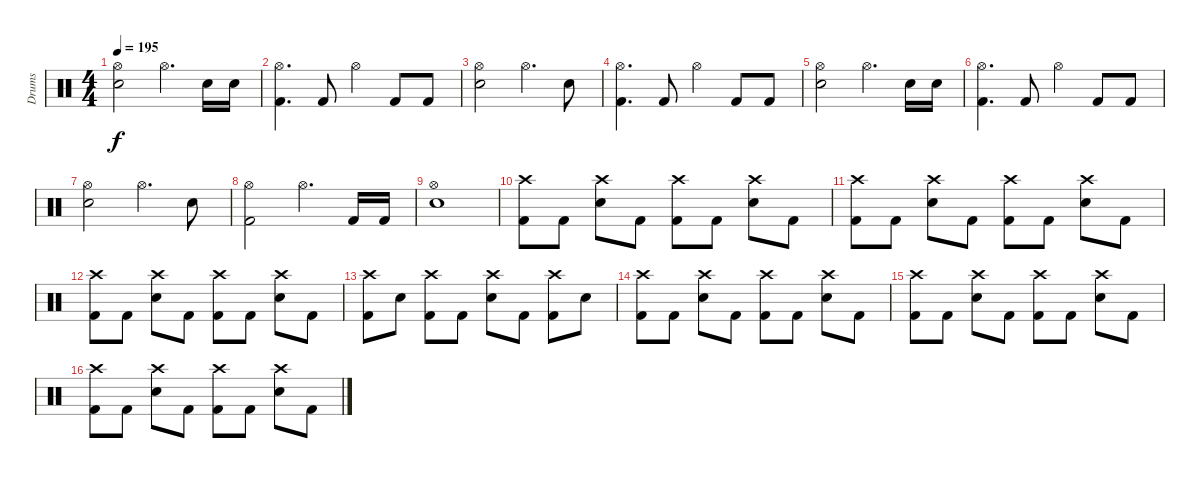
\track ("Drums" "Drums") {instrument percussion}
\staff {score}
\articulation defaults
\ts (4 4)
\tempo 195
\clef neutral
\ks c
("Hi-Hat (open)" "Electric Snare (hit)").2{dy f} "Hi-Hat (open)".4{d} "Electric Snare (hit)".16 "Electric Snare (hit)".16 |
("Hi-Hat (open)" "Kick (hit) 2").4{d} "Kick (hit) 2".8 "Hi-Hat (open)".4 "Kick (hit) 2".8 "Kick (hit) 2".8 |
("Hi-Hat (open)" "Electric Snare (hit)").2 "Hi-Hat (open)".4{d} "Electric Snare (hit)".8 |
("Hi-Hat (open)" "Kick (hit) 2").4{d} "Kick (hit) 2".8 "Hi-Hat (open)".4 "Kick (hit) 2".8 "Kick (hit) 2".8 |
("Hi-Hat (open)" "Electric Snare (hit)").2 "Hi-Hat (open)".4{d} "Electric Snare (hit)".16 "Electric Snare (hit)".16 |
("Hi-Hat (open)" "Kick (hit) 2").4{d} "Kick (hit) 2".8 "Hi-Hat (open)".4 "Kick (hit) 2".8 "Kick (hit) 2".8 |
("Hi-Hat (open)" "Electric Snare (hit)").2 "Hi-Hat (open)".4{d} "Electric Snare (hit)".8 |
("Hi-Hat (open)" "Kick (hit) 2").2 "Hi-Hat (open)".4{d} "Kick (hit) 2".16 "Kick (hit) 2".16 |
("Hi-Hat (open)" "Electric Snare (hit)").1 |
("Crash high (hit)" "Kick (hit) 2").8 "Kick (hit) 2".8 ("Crash high (hit)" "Electric Snare (hit)").8 "Kick (hit) 2".8 ("Crash high (hit)" "Kick (hit) 2").8 "Kick (hit) 2".8 ("Crash high (hit)" "Electric Snare (hit)").8 "Kick (hit) 2".8 |
("Crash high (hit)" "Kick (hit) 2").8 "Kick (hit) 2".8 ("Crash high (hit)" "Electric Snare (hit)").8 "Kick (hit) 2".8 ("Crash high (hit)" "Kick (hit) 2").8 "Kick (hit) 2".8 ("Crash high (hit)" "Electric Snare (hit)").8 "Kick (hit) 2".8 |
("Crash high (hit)" "Kick (hit) 2").8 "Kick (hit) 2".8 ("Crash high (hit)" "Electric Snare (hit)").8 "Kick (hit) 2".8 ("Crash high (hit)" "Kick (hit) 2").8 "Kick (hit) 2".8 ("Crash high (hit)" "Electric Snare (hit)").8 "Kick (hit) 2".8 |
("Crash high (hit)" "Kick (hit) 2").8 "Electric Snare (hit)".8 ("Crash high (hit)" "Kick (hit) 2").8 "Kick (hit) 2".8 ("Crash high (hit)" "Electric Snare (hit)").8 "Kick (hit) 2".8 ("Crash high (hit)" "Kick (hit) 2").8 "Electric Snare (hit)".8 |
("Crash high (hit)" "Kick (hit) 2").8 "Kick (hit) 2".8 ("Crash high (hit)" "Electric Snare (hit)").8 "Kick (hit) 2".8 ("Crash high (hit)" "Kick (hit) 2").8 "Kick (hit) 2".8 ("Crash high (hit)" "Electric Snare (hit)").8 "Kick (hit) 2".8 |
("Crash high (hit)" "Kick (hit) 2").8 "Kick (hit) 2".8 ("Crash high (hit)" "Electric Snare (hit)").8 "Kick (hit) 2".8 ("Crash high (hit)" "Kick (hit) 2").8 "Kick (hit) 2".8 ("Crash high (hit)" "Electric Snare (hit)").8 "Kick (hit) 2".8 |
("Crash high (hit)" "Kick (hit) 2").8 "Kick (hit) 2".8 ("Crash high (hit)" "Electric Snare (hit)").8 "Kick (hit) 2".8 ("Crash high (hit)" "Kick (hit) 2").8 "Kick (hit) 2".8 ("Crash high (hit)" "Electric Snare (hit)").8 "Kick (hit) 2".8
